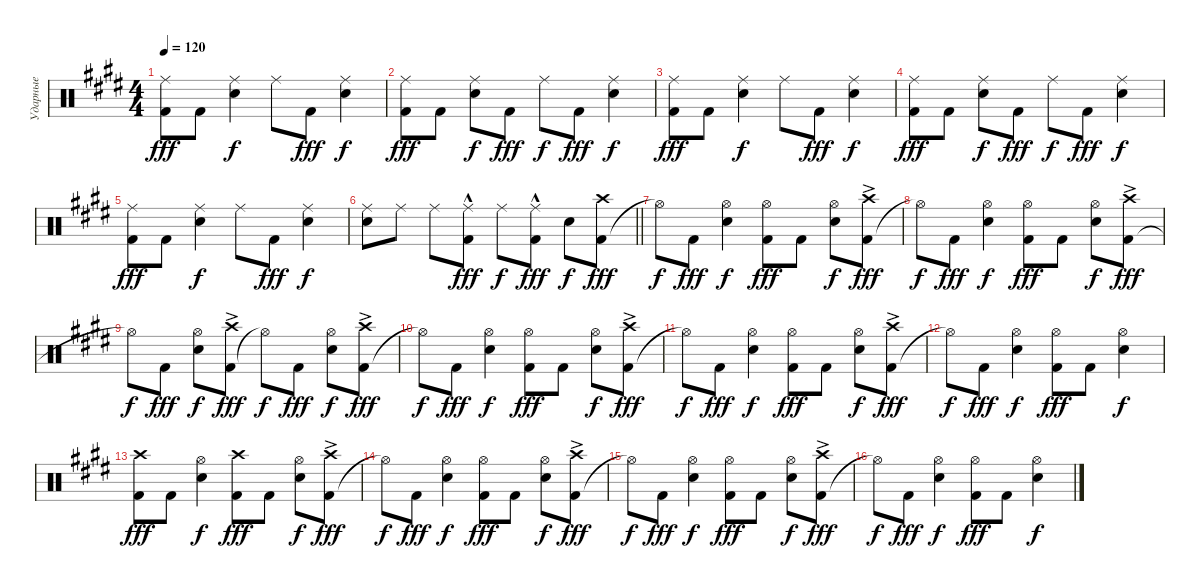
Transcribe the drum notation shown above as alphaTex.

\track ("Ударные" "Ударные") {instrument percussion}
\staff {score}
\articulation defaults
\ts (4 4)
\tempo 120
\clef neutral
\ks e
("Kick (hit) 2" "Ride (middle)").8{dy fff} "Kick (hit) 2".8 ("Snare (hit) 2" "Ride (middle)").4{dy f} "Ride (middle)".8 "Kick (hit) 2".8{dy fff} ("Snare (hit) 2" "Ride (middle)").4{dy f} |
("Kick (hit) 2" "Ride (middle)").8{dy fff} "Kick (hit) 2".8 ("Snare (hit) 2" "Ride (middle)").8{dy f} "Kick (hit) 2".8{dy fff} "Ride (middle)".8{dy f} "Kick (hit) 2".8{dy fff} ("Snare (hit) 2" "Ride (middle)").4{dy f} |
("Kick (hit) 2" "Ride (middle)").8{dy fff} "Kick (hit) 2".8 ("Snare (hit) 2" "Ride (middle)").4{dy f} "Ride (middle)".8 "Kick (hit) 2".8{dy fff} ("Snare (hit) 2" "Ride (middle)").4{dy f} |
("Kick (hit) 2" "Ride (middle)").8{dy fff} "Kick (hit) 2".8 ("Snare (hit) 2" "Ride (middle)").8{dy f} "Kick (hit) 2".8{dy fff} "Ride (middle)".8{dy f} "Kick (hit) 2".8{dy fff} ("Snare (hit) 2" "Ride (middle)").4{dy f} |
("Kick (hit) 2" "Ride (middle)").8{dy fff} "Kick (hit) 2".8 ("Snare (hit) 2" "Ride (middle)").4{dy f} "Ride (middle)".8 "Kick (hit) 2".8{dy fff} ("Snare (hit) 2" "Ride (middle)").4{dy f} |
\barLineRight lightlight
("Snare (hit) 2" "Ride (middle)").8 "Ride (middle)".8 "Ride (middle)".8 ("Kick (hit) 2"{hac} "Ride (middle)").8{dy fff} "Ride (middle)".8{dy f} ("Kick (hit) 2"{hac} "Ride (middle)").8{dy fff} "Snare (hit) 2".8{dy f} ("Kick (hit) 2" "Crash high (hit)").8{dy fff} |
"Hi-Hat (open)"{t}.8{dy f} "Kick (hit) 2".8{dy fff} ("Snare (hit) 2" "Hi-Hat (open)").4{dy f} ("Kick (hit) 2" "Hi-Hat (open)").8{dy fff} "Kick (hit) 2".8 ("Snare (hit) 2" "Hi-Hat (open)").8{dy f} ("Kick (hit) 2" "Crash high (hit)"{ac}).8{dy fff} |
"Hi-Hat (open)"{t}.8{dy f} "Kick (hit) 2".8{dy fff} ("Snare (hit) 2" "Hi-Hat (open)").4{dy f} ("Kick (hit) 2" "Hi-Hat (open)").8{dy fff} "Kick (hit) 2".8 ("Snare (hit) 2" "Hi-Hat (open)").8{dy f} ("Kick (hit) 2" "Crash high (hit)"{ac}).8{dy fff} |
"Hi-Hat (open)"{t}.8{dy f} "Kick (hit) 2".8{dy fff} ("Snare (hit) 2" "Hi-Hat (open)").8{dy f} ("Kick (hit) 2" "Crash high (hit)"{ac}).8{dy fff} "Hi-Hat (open)"{t}.8{dy f} "Kick (hit) 2".8{dy fff} ("Snare (hit) 2" "Hi-Hat (open)").8{dy f} ("Kick (hit) 2" "Crash high (hit)"{ac}).8{dy fff} |
"Hi-Hat (open)"{t}.8{dy f} "Kick (hit) 2".8{dy fff} ("Snare (hit) 2" "Hi-Hat (open)").4{dy f} ("Kick (hit) 2" "Hi-Hat (open)").8{dy fff} "Kick (hit) 2".8 ("Snare (hit) 2" "Hi-Hat (open)").8{dy f} ("Kick (hit) 2" "Crash high (hit)"{ac}).8{dy fff} |
"Hi-Hat (open)"{t}.8{dy f} "Kick (hit) 2".8{dy fff} ("Snare (hit) 2" "Hi-Hat (open)").4{dy f} ("Kick (hit) 2" "Hi-Hat (open)").8{dy fff} "Kick (hit) 2".8 ("Snare (hit) 2" "Hi-Hat (open)").8{dy f} ("Kick (hit) 2" "Crash high (hit)"{ac}).8{dy fff} |
"Hi-Hat (open)"{t}.8{dy f} "Kick (hit) 2".8{dy fff} ("Snare (hit) 2" "Hi-Hat (open)").4{dy f} ("Kick (hit) 2" "Hi-Hat (open)").8{dy fff} "Kick (hit) 2".8 ("Snare (hit) 2" "Hi-Hat (open)").4{dy f} |
("Kick (hit) 2" "Crash high (hit)").8{dy fff} "Kick (hit) 2".8 ("Snare (hit) 2" "Hi-Hat (open)").4{dy f} ("Kick (hit) 2" "Crash high (hit)").8{dy fff} "Kick (hit) 2".8 ("Snare (hit) 2" "Hi-Hat (open)").8{dy f} ("Kick (hit) 2" "Crash high (hit)"{ac}).8{dy fff} |
"Hi-Hat (open)"{t}.8{dy f} "Kick (hit) 2".8{dy fff} ("Snare (hit) 2" "Hi-Hat (open)").4{dy f} ("Kick (hit) 2" "Hi-Hat (open)").8{dy fff} "Kick (hit) 2".8 ("Snare (hit) 2" "Hi-Hat (open)").8{dy f} ("Kick (hit) 2" "Crash high (hit)"{ac}).8{dy fff} |
"Hi-Hat (open)"{t}.8{dy f} "Kick (hit) 2".8{dy fff} ("Snare (hit) 2" "Hi-Hat (open)").4{dy f} ("Kick (hit) 2" "Hi-Hat (open)").8{dy fff} "Kick (hit) 2".8 ("Snare (hit) 2" "Hi-Hat (open)").8{dy f} ("Kick (hit) 2" "Crash high (hit)"{ac}).8{dy fff} |
"Hi-Hat (open)"{t}.8{dy f} "Kick (hit) 2".8{dy fff} ("Snare (hit) 2" "Hi-Hat (open)").4{dy f} ("Kick (hit) 2" "Hi-Hat (open)").8{dy fff} "Kick (hit) 2".8 ("Snare (hit) 2" "Hi-Hat (open)").4{dy f}
